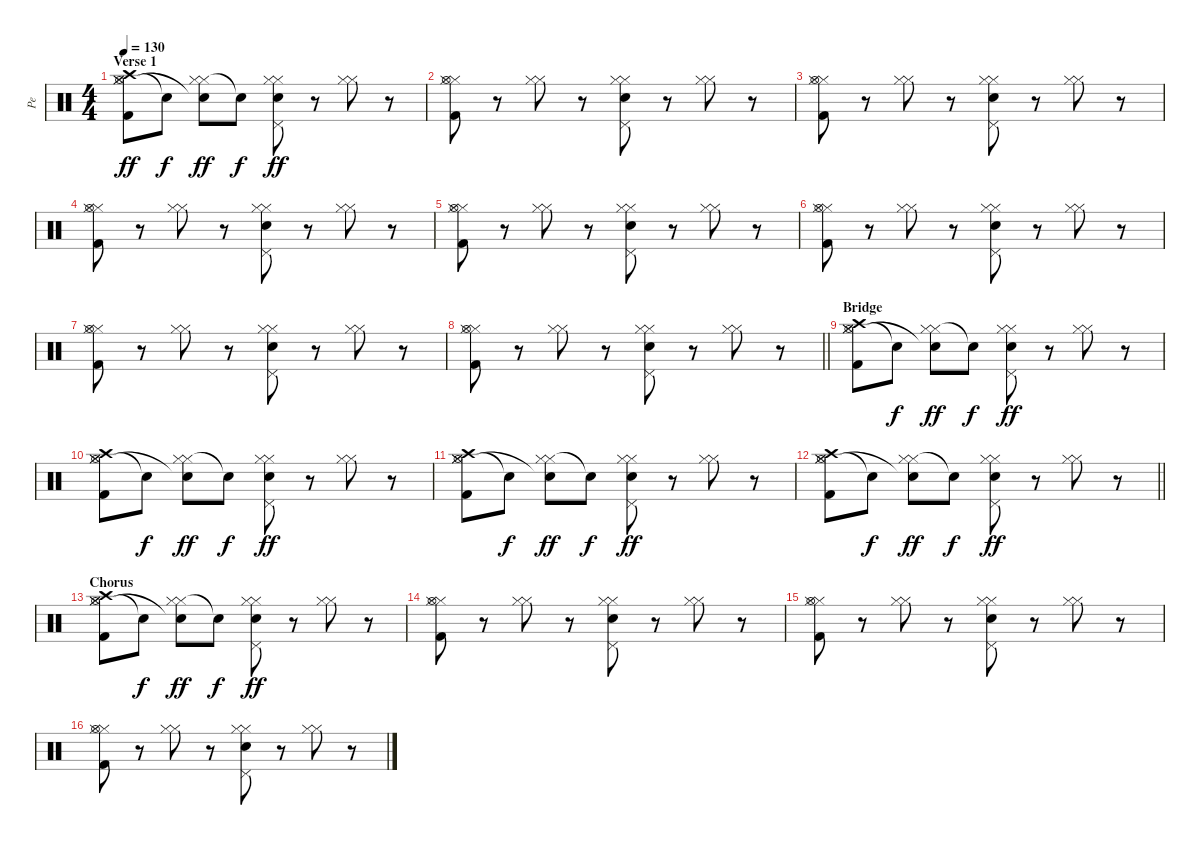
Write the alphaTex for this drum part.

\track ("Pe" "Pe") {instrument percussion}
\staff {score}
\articulation defaults
\ts (4 4)
\section ("" "Verse 1")
\tempo 130
\clef neutral
\ks c
("Hi-Hat (closed)" "Hi-Hat (closed)" "Hi-Hat (open)" "Crash high (hit)" "Kick (hit) 2").8{dy ff} "Snare (hit)"{t}.8{dy f} ("Hi-Hat (closed)" "Hi-Hat (closed)" "Snare (hit)"{t}).8{dy ff} "Snare (hit)"{t}.8{dy f} ("Hi-Hat (closed)" "Hi-Hat (closed)" "Pedal Hi-Hat (hit)" "Electric Snare (hit)").8{dy ff} r.8 ("Hi-Hat (closed)" "Hi-Hat (closed)").8 r.8 |
("Hi-Hat (closed)" "Hi-Hat (closed)" "Hi-Hat (open)" "Kick (hit) 2").8 r.8 ("Hi-Hat (closed)" "Hi-Hat (closed)").8 r.8 ("Hi-Hat (closed)" "Hi-Hat (closed)" "Pedal Hi-Hat (hit)" "Electric Snare (hit)").8 r.8 ("Hi-Hat (closed)" "Hi-Hat (closed)").8 r.8 |
("Hi-Hat (closed)" "Hi-Hat (closed)" "Hi-Hat (open)" "Kick (hit) 2").8 r.8 ("Hi-Hat (closed)" "Hi-Hat (closed)").8 r.8 ("Hi-Hat (closed)" "Hi-Hat (closed)" "Pedal Hi-Hat (hit)" "Electric Snare (hit)").8 r.8 ("Hi-Hat (closed)" "Hi-Hat (closed)").8 r.8 |
("Hi-Hat (closed)" "Hi-Hat (closed)" "Hi-Hat (open)" "Kick (hit) 2").8 r.8 ("Hi-Hat (closed)" "Hi-Hat (closed)").8 r.8 ("Hi-Hat (closed)" "Hi-Hat (closed)" "Pedal Hi-Hat (hit)" "Electric Snare (hit)").8 r.8 ("Hi-Hat (closed)" "Hi-Hat (closed)").8 r.8 |
("Hi-Hat (closed)" "Hi-Hat (closed)" "Hi-Hat (open)" "Kick (hit) 2").8 r.8 ("Hi-Hat (closed)" "Hi-Hat (closed)").8 r.8 ("Hi-Hat (closed)" "Hi-Hat (closed)" "Pedal Hi-Hat (hit)" "Electric Snare (hit)").8 r.8 ("Hi-Hat (closed)" "Hi-Hat (closed)").8 r.8 |
("Hi-Hat (closed)" "Hi-Hat (closed)" "Hi-Hat (open)" "Kick (hit) 2").8 r.8 ("Hi-Hat (closed)" "Hi-Hat (closed)").8 r.8 ("Hi-Hat (closed)" "Hi-Hat (closed)" "Pedal Hi-Hat (hit)" "Electric Snare (hit)").8 r.8 ("Hi-Hat (closed)" "Hi-Hat (closed)").8 r.8 |
("Hi-Hat (closed)" "Hi-Hat (closed)" "Hi-Hat (open)" "Kick (hit) 2").8 r.8 ("Hi-Hat (closed)" "Hi-Hat (closed)").8 r.8 ("Hi-Hat (closed)" "Hi-Hat (closed)" "Pedal Hi-Hat (hit)" "Electric Snare (hit)").8 r.8 ("Hi-Hat (closed)" "Hi-Hat (closed)").8 r.8 |
\barLineRight lightlight
("Hi-Hat (closed)" "Hi-Hat (closed)" "Hi-Hat (open)" "Kick (hit) 2").8 r.8 ("Hi-Hat (closed)" "Hi-Hat (closed)").8 r.8 ("Hi-Hat (closed)" "Hi-Hat (closed)" "Pedal Hi-Hat (hit)" "Electric Snare (hit)").8 r.8 ("Hi-Hat (closed)" "Hi-Hat (closed)").8 r.8 |
\section ("" "Bridge")
("Hi-Hat (closed)" "Hi-Hat (closed)" "Hi-Hat (open)" "Crash high (hit)" "Kick (hit) 2").8 "Snare (hit)"{t}.8{dy f} ("Hi-Hat (closed)" "Hi-Hat (closed)" "Snare (hit)"{t}).8{dy ff} "Snare (hit)"{t}.8{dy f} ("Hi-Hat (closed)" "Hi-Hat (closed)" "Pedal Hi-Hat (hit)" "Electric Snare (hit)").8{dy ff} r.8 ("Hi-Hat (closed)" "Hi-Hat (closed)").8 r.8 |
("Hi-Hat (closed)" "Hi-Hat (closed)" "Hi-Hat (open)" "Crash high (hit)" "Kick (hit) 2").8 "Snare (hit)"{t}.8{dy f} ("Hi-Hat (closed)" "Hi-Hat (closed)" "Snare (hit)"{t}).8{dy ff} "Snare (hit)"{t}.8{dy f} ("Hi-Hat (closed)" "Hi-Hat (closed)" "Pedal Hi-Hat (hit)" "Electric Snare (hit)").8{dy ff} r.8 ("Hi-Hat (closed)" "Hi-Hat (closed)").8 r.8 |
("Hi-Hat (closed)" "Hi-Hat (closed)" "Hi-Hat (open)" "Crash high (hit)" "Kick (hit) 2").8 "Snare (hit)"{t}.8{dy f} ("Hi-Hat (closed)" "Hi-Hat (closed)" "Snare (hit)"{t}).8{dy ff} "Snare (hit)"{t}.8{dy f} ("Hi-Hat (closed)" "Hi-Hat (closed)" "Pedal Hi-Hat (hit)" "Electric Snare (hit)").8{dy ff} r.8 ("Hi-Hat (closed)" "Hi-Hat (closed)").8 r.8 |
\barLineRight lightlight
("Hi-Hat (closed)" "Hi-Hat (closed)" "Hi-Hat (open)" "Crash high (hit)" "Kick (hit) 2").8 "Snare (hit)"{t}.8{dy f} ("Hi-Hat (closed)" "Hi-Hat (closed)" "Snare (hit)"{t}).8{dy ff} "Snare (hit)"{t}.8{dy f} ("Hi-Hat (closed)" "Hi-Hat (closed)" "Pedal Hi-Hat (hit)" "Electric Snare (hit)").8{dy ff} r.8 ("Hi-Hat (closed)" "Hi-Hat (closed)").8 r.8 |
\section ("" "Chorus")
("Hi-Hat (closed)" "Hi-Hat (closed)" "Hi-Hat (open)" "Crash high (hit)" "Kick (hit) 2").8 "Snare (hit)"{t}.8{dy f} ("Hi-Hat (closed)" "Hi-Hat (closed)" "Snare (hit)"{t}).8{dy ff} "Snare (hit)"{t}.8{dy f} ("Hi-Hat (closed)" "Hi-Hat (closed)" "Pedal Hi-Hat (hit)" "Electric Snare (hit)").8{dy ff} r.8 ("Hi-Hat (closed)" "Hi-Hat (closed)").8 r.8 |
("Hi-Hat (closed)" "Hi-Hat (closed)" "Hi-Hat (open)" "Kick (hit) 2").8 r.8 ("Hi-Hat (closed)" "Hi-Hat (closed)").8 r.8 ("Hi-Hat (closed)" "Hi-Hat (closed)" "Pedal Hi-Hat (hit)" "Electric Snare (hit)").8 r.8 ("Hi-Hat (closed)" "Hi-Hat (closed)").8 r.8 |
("Hi-Hat (closed)" "Hi-Hat (closed)" "Hi-Hat (open)" "Kick (hit) 2").8 r.8 ("Hi-Hat (closed)" "Hi-Hat (closed)").8 r.8 ("Hi-Hat (closed)" "Hi-Hat (closed)" "Pedal Hi-Hat (hit)" "Electric Snare (hit)").8 r.8 ("Hi-Hat (closed)" "Hi-Hat (closed)").8 r.8 |
("Hi-Hat (closed)" "Hi-Hat (closed)" "Hi-Hat (open)" "Kick (hit) 2").8 r.8 ("Hi-Hat (closed)" "Hi-Hat (closed)").8 r.8 ("Hi-Hat (closed)" "Hi-Hat (closed)" "Pedal Hi-Hat (hit)" "Electric Snare (hit)").8 r.8 ("Hi-Hat (closed)" "Hi-Hat (closed)").8 r.8
